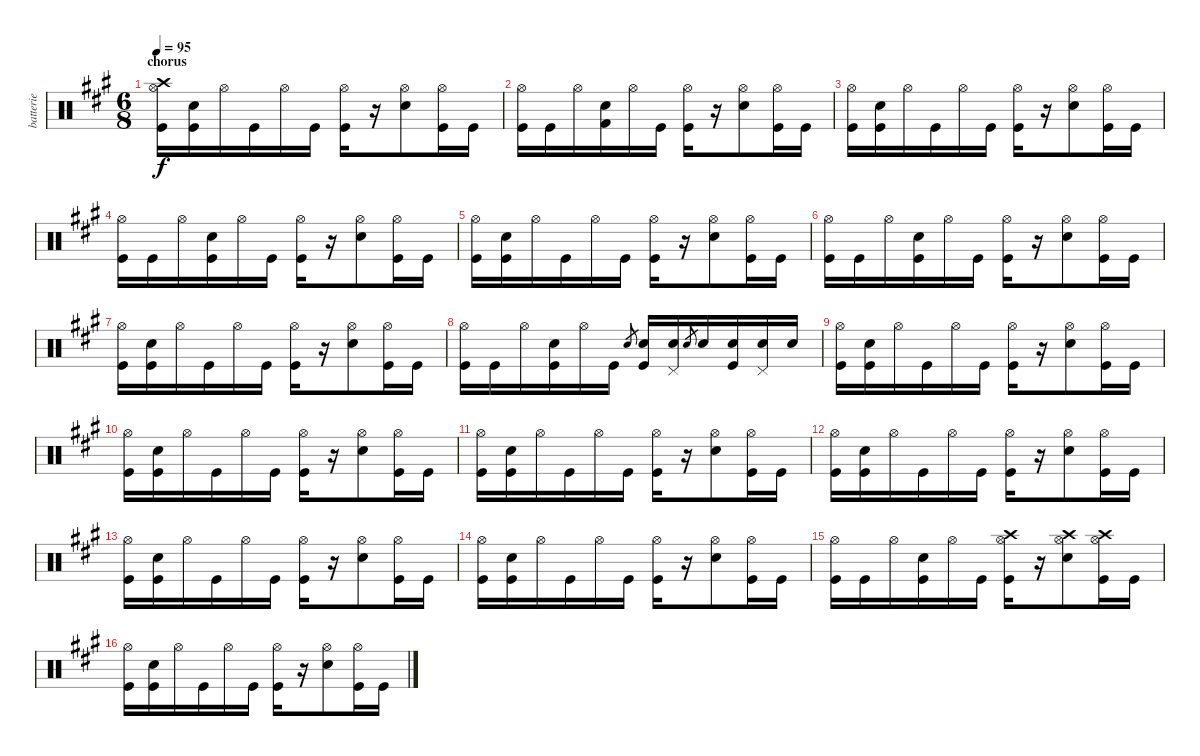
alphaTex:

\track ("batterie" "batterie") {instrument percussion}
\staff {score}
\articulation defaults
\ts (6 8)
\section ("" "chorus")
\tempo 95
\clef neutral
\ks a
("Hi-Hat (open)" "Crash high (hit)" "Kick (hit)").16{dy f} ("Electric Snare (hit)" "Kick (hit)").16 "Hi-Hat (open)".16 "Kick (hit)".16 "Hi-Hat (open)".16 "Kick (hit)".16 ("Hi-Hat (open)" "Kick (hit)").16 r.16 ("Hi-Hat (open)" "Electric Snare (hit)").8 ("Hi-Hat (open)" "Kick (hit)").16 "Kick (hit)".16 |
("Hi-Hat (open)" "Kick (hit)").16 "Kick (hit)".16 "Hi-Hat (open)".16 ("Electric Snare (hit)" "Kick (hit) 2").16 "Hi-Hat (open)".16 "Kick (hit)".16 ("Hi-Hat (open)" "Kick (hit)").16 r.16 ("Hi-Hat (open)" "Electric Snare (hit)").8 ("Hi-Hat (open)" "Kick (hit)").16 "Kick (hit)".16 |
("Hi-Hat (open)" "Kick (hit)").16 ("Electric Snare (hit)" "Kick (hit)").16 "Hi-Hat (open)".16 "Kick (hit)".16 "Hi-Hat (open)".16 "Kick (hit)".16 ("Hi-Hat (open)" "Kick (hit)").16 r.16 ("Hi-Hat (open)" "Electric Snare (hit)").8 ("Hi-Hat (open)" "Kick (hit)").16 "Kick (hit)".16 |
("Hi-Hat (open)" "Kick (hit)").16 "Kick (hit)".16 "Hi-Hat (open)".16 ("Electric Snare (hit)" "Kick (hit)").16 "Hi-Hat (open)".16 "Kick (hit)".16 ("Hi-Hat (open)" "Kick (hit)").16 r.16 ("Hi-Hat (open)" "Electric Snare (hit)").8 ("Hi-Hat (open)" "Kick (hit)").16 "Kick (hit)".16 |
("Hi-Hat (open)" "Kick (hit)").16 ("Electric Snare (hit)" "Kick (hit)").16 "Hi-Hat (open)".16 "Kick (hit)".16 "Hi-Hat (open)".16 "Kick (hit)".16 ("Hi-Hat (open)" "Kick (hit)").16 r.16 ("Hi-Hat (open)" "Electric Snare (hit)").8 ("Hi-Hat (open)" "Kick (hit)").16 "Kick (hit)".16 |
("Hi-Hat (open)" "Kick (hit)").16 "Kick (hit)".16 "Hi-Hat (open)".16 ("Electric Snare (hit)" "Kick (hit)").16 "Hi-Hat (open)".16 "Kick (hit)".16 ("Hi-Hat (open)" "Kick (hit)").16 r.16 ("Hi-Hat (open)" "Electric Snare (hit)").8 ("Hi-Hat (open)" "Kick (hit)").16 "Kick (hit)".16 |
("Hi-Hat (open)" "Kick (hit)").16 ("Electric Snare (hit)" "Kick (hit)").16 "Hi-Hat (open)".16 "Kick (hit)".16 "Hi-Hat (open)".16 "Kick (hit)".16 ("Hi-Hat (open)" "Kick (hit)").16 r.16 ("Hi-Hat (open)" "Electric Snare (hit)").8 ("Hi-Hat (open)" "Kick (hit)").16 "Kick (hit)".16 |
("Hi-Hat (open)" "Kick (hit)").16 "Kick (hit)".16 "Hi-Hat (open)".16 ("Electric Snare (hit)" "Kick (hit)").16 "Hi-Hat (open)".16 "Kick (hit)".16 "Electric Snare (hit)".8{gr} ("Electric Snare (hit)" "Kick (hit)").16 ("Pedal Hi-Hat (hit)" "Electric Snare (hit)").16 "Electric Snare (hit)".8{gr} "Electric Snare (hit)".16 ("Electric Snare (hit)" "Kick (hit)").16 ("Pedal Hi-Hat (hit)" "Electric Snare (hit)").16 "Electric Snare (hit)".16 |
("Hi-Hat (open)" "Kick (hit)").16 ("Electric Snare (hit)" "Kick (hit)").16 "Hi-Hat (open)".16 "Kick (hit)".16 "Hi-Hat (open)".16 "Kick (hit)".16 ("Hi-Hat (open)" "Kick (hit)").16 r.16 ("Hi-Hat (open)" "Electric Snare (hit)").8 ("Hi-Hat (open)" "Kick (hit)").16 "Kick (hit)".16 |
("Hi-Hat (open)" "Kick (hit)").16 ("Electric Snare (hit)" "Kick (hit)").16 "Hi-Hat (open)".16 "Kick (hit)".16 "Hi-Hat (open)".16 "Kick (hit)".16 ("Hi-Hat (open)" "Kick (hit)").16 r.16 ("Hi-Hat (open)" "Electric Snare (hit)").8 ("Hi-Hat (open)" "Kick (hit)").16 "Kick (hit)".16 |
("Hi-Hat (open)" "Kick (hit)").16 ("Electric Snare (hit)" "Kick (hit)").16 "Hi-Hat (open)".16 "Kick (hit)".16 "Hi-Hat (open)".16 "Kick (hit)".16 ("Hi-Hat (open)" "Kick (hit)").16 r.16 ("Hi-Hat (open)" "Electric Snare (hit)").8 ("Hi-Hat (open)" "Kick (hit)").16 "Kick (hit)".16 |
("Hi-Hat (open)" "Kick (hit)").16 ("Electric Snare (hit)" "Kick (hit)").16 "Hi-Hat (open)".16 "Kick (hit)".16 "Hi-Hat (open)".16 "Kick (hit)".16 ("Hi-Hat (open)" "Kick (hit)").16 r.16 ("Hi-Hat (open)" "Electric Snare (hit)").8 ("Hi-Hat (open)" "Kick (hit)").16 "Kick (hit)".16 |
("Hi-Hat (open)" "Kick (hit)").16 ("Electric Snare (hit)" "Kick (hit)").16 "Hi-Hat (open)".16 "Kick (hit)".16 "Hi-Hat (open)".16 "Kick (hit)".16 ("Hi-Hat (open)" "Kick (hit)").16 r.16 ("Hi-Hat (open)" "Electric Snare (hit)").8 ("Hi-Hat (open)" "Kick (hit)").16 "Kick (hit)".16 |
("Hi-Hat (open)" "Kick (hit)").16 ("Electric Snare (hit)" "Kick (hit)").16 "Hi-Hat (open)".16 "Kick (hit)".16 "Hi-Hat (open)".16 "Kick (hit)".16 ("Hi-Hat (open)" "Kick (hit)").16 r.16 ("Hi-Hat (open)" "Electric Snare (hit)").8 ("Hi-Hat (open)" "Kick (hit)").16 "Kick (hit)".16 |
("Hi-Hat (open)" "Kick (hit)").16 "Kick (hit)".16 "Hi-Hat (open)".16 ("Electric Snare (hit)" "Kick (hit)").16 "Hi-Hat (open)".16 "Kick (hit)".16 ("Crash high (hit)" "Hi-Hat (open)" "Kick (hit)").16 r.16 ("Crash high (hit)" "Hi-Hat (open)" "Electric Snare (hit)").8 ("Crash high (hit)" "Hi-Hat (open)" "Kick (hit)").16 "Kick (hit)".16 |
("Hi-Hat (open)" "Kick (hit)").16 ("Electric Snare (hit)" "Kick (hit)").16 "Hi-Hat (open)".16 "Kick (hit)".16 "Hi-Hat (open)".16 "Kick (hit)".16 ("Hi-Hat (open)" "Kick (hit)").16 r.16 ("Hi-Hat (open)" "Electric Snare (hit)").8 ("Hi-Hat (open)" "Kick (hit)").16 "Kick (hit)".16
